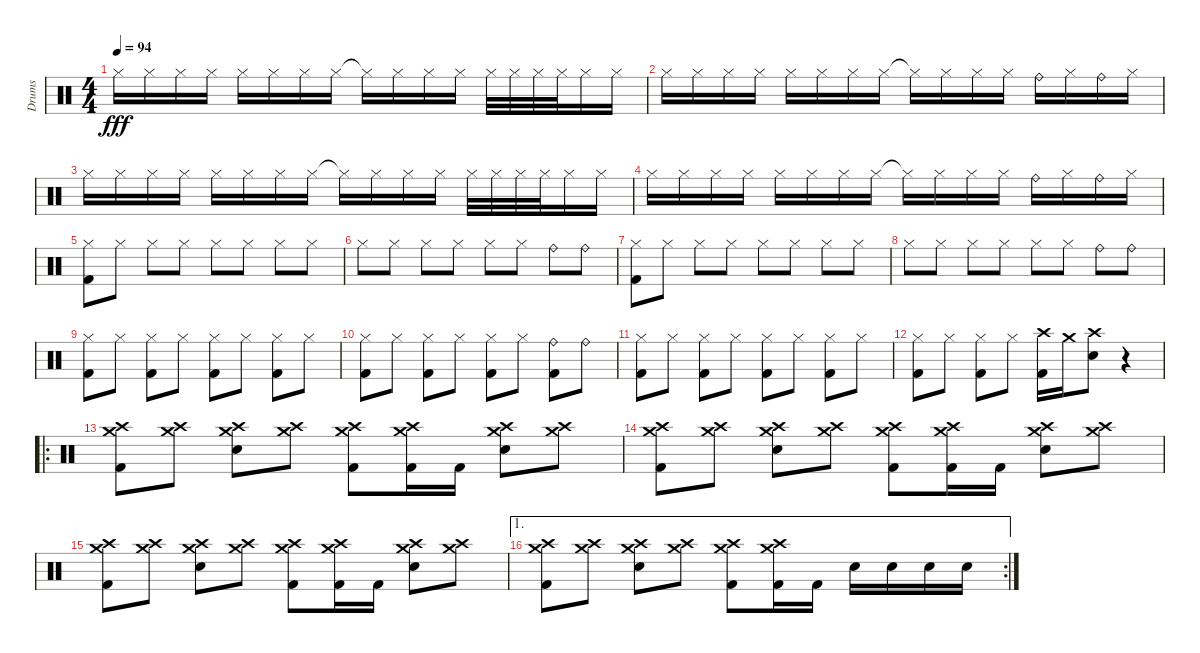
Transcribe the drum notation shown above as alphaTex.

\track ("Drums" "Drums") {instrument percussion}
\staff {score}
\articulation defaults
\ts (4 4)
\tempo 94
\clef neutral
\ks c "Hi-Hat (closed)".16{dy fff} "Hi-Hat (closed)".16 "Hi-Hat (closed)".16 "Hi-Hat (closed)".16 "Hi-Hat (closed)".16 "Hi-Hat (closed)".16 "Hi-Hat (closed)".16 "Hi-Hat (closed)".16 "Hi-Hat (closed)"{t}.16 "Hi-Hat (closed)".16 "Hi-Hat (closed)".16 "Hi-Hat (closed)".16 "Hi-Hat (closed)".32 "Hi-Hat (closed)".32 "Hi-Hat (closed)".32 "Hi-Hat (closed)".32 "Hi-Hat (closed)".16 "Hi-Hat (closed)".16
|
"Hi-Hat (closed)".16 "Hi-Hat (closed)".16 "Hi-Hat (closed)".16 "Hi-Hat (closed)".16 "Hi-Hat (closed)".16 "Hi-Hat (closed)".16 "Hi-Hat (closed)".16 "Hi-Hat (closed)".16 "Hi-Hat (closed)"{t}.16 "Hi-Hat (closed)".16 "Hi-Hat (closed)".16 "Hi-Hat (closed)".16 "Ride (bell)".16 "Hi-Hat (closed)".16 "Ride (bell)".16 "Hi-Hat (closed)".16 |
"Hi-Hat (closed)".16 "Hi-Hat (closed)".16 "Hi-Hat (closed)".16 "Hi-Hat (closed)".16 "Hi-Hat (closed)".16 "Hi-Hat (closed)".16 "Hi-Hat (closed)".16 "Hi-Hat (closed)".16 "Hi-Hat (closed)"{t}.16 "Hi-Hat (closed)".16 "Hi-Hat (closed)".16 "Hi-Hat (closed)".16 "Hi-Hat (closed)".32 "Hi-Hat (closed)".32 "Hi-Hat (closed)".32 "Hi-Hat (closed)".32 "Hi-Hat (closed)".16 "Hi-Hat (closed)".16 |
"Hi-Hat (closed)".16 "Hi-Hat (closed)".16 "Hi-Hat (closed)".16 "Hi-Hat (closed)".16 "Hi-Hat (closed)".16 "Hi-Hat (closed)".16 "Hi-Hat (closed)".16 "Hi-Hat (closed)".16 "Hi-Hat (closed)"{t}.16 "Hi-Hat (closed)".16 "Hi-Hat (closed)".16 "Hi-Hat (closed)".16 "Ride (bell)".16 "Hi-Hat (closed)".16 "Ride (bell)".16 "Hi-Hat (closed)".16 |
("Hi-Hat (closed)" "Kick (hit) 2").8 "Hi-Hat (closed)".8 "Hi-Hat (closed)".8 "Hi-Hat (closed)".8 "Hi-Hat (closed)".8 "Hi-Hat (closed)".8 "Hi-Hat (closed)".8 "Hi-Hat (closed)".8 |
"Hi-Hat (closed)".8 "Hi-Hat (closed)".8 "Hi-Hat (closed)".8 "Hi-Hat (closed)".8 "Hi-Hat (closed)".8 "Hi-Hat (closed)".8 "Ride (bell)".8 "Ride (bell)".8 |
("Hi-Hat (closed)" "Kick (hit) 2").8 "Hi-Hat (closed)".8 "Hi-Hat (closed)".8 "Hi-Hat (closed)".8 "Hi-Hat (closed)".8 "Hi-Hat (closed)".8 "Hi-Hat (closed)".8 "Hi-Hat (closed)".8 |
"Hi-Hat (closed)".8 "Hi-Hat (closed)".8 "Hi-Hat (closed)".8 "Hi-Hat (closed)".8 "Hi-Hat (closed)".8 "Hi-Hat (closed)".8 "Ride (bell)".8 "Ride (bell)".8 |
("Hi-Hat (closed)" "Kick (hit) 2").8 "Hi-Hat (closed)".8 ("Hi-Hat (closed)" "Kick (hit) 2").8 "Hi-Hat (closed)".8 ("Hi-Hat (closed)" "Kick (hit) 2").8 "Hi-Hat (closed)".8 ("Hi-Hat (closed)" "Kick (hit) 2").8 "Hi-Hat (closed)".8 |
("Hi-Hat (closed)" "Kick (hit) 2").8 "Hi-Hat (closed)".8 ("Hi-Hat (closed)" "Kick (hit) 2").8 "Hi-Hat (closed)".8 ("Hi-Hat (closed)" "Kick (hit) 2").8 "Hi-Hat (closed)".8 ("Ride (bell)" "Kick (hit) 2").8 "Ride (bell)".8 |
("Hi-Hat (closed)" "Kick (hit) 2").8 "Hi-Hat (closed)".8 ("Hi-Hat (closed)" "Kick (hit) 2").8 "Hi-Hat (closed)".8 ("Hi-Hat (closed)" "Kick (hit) 2").8 "Hi-Hat (closed)".8 ("Hi-Hat (closed)" "Kick (hit) 2").8 "Hi-Hat (closed)".8 |
("Hi-Hat (closed)" "Kick (hit) 2").8 "Hi-Hat (closed)".8 ("Hi-Hat (closed)" "Kick (hit) 2").8 "Hi-Hat (closed)".8 ("Crash high (hit)" "Kick (hit) 2").16 "Crash medium (hit)".16 ("Crash high (hit)" "Snare (hit) 2").8 r.4 |
\ro
("Crash high (hit)" "Crash medium (hit)" "Kick (hit) 2").8 ("Crash high (hit)" "Crash medium (hit)").8 ("Crash high (hit)" "Crash medium (hit)" "Snare (hit) 2").8 ("Crash high (hit)" "Crash medium (hit)").8 ("Crash high (hit)" "Crash medium (hit)" "Kick (hit) 2").8 ("Crash high (hit)" "Crash medium (hit)" "Kick (hit) 2").16 "Kick (hit) 2".16 ("Crash high (hit)" "Crash medium (hit)" "Snare (hit) 2").8 ("Crash high (hit)" "Crash medium (hit)").8 |
("Crash high (hit)" "Crash medium (hit)" "Kick (hit) 2").8 ("Crash high (hit)" "Crash medium (hit)").8 ("Crash high (hit)" "Crash medium (hit)" "Snare (hit) 2").8 ("Crash high (hit)" "Crash medium (hit)").8 ("Crash high (hit)" "Crash medium (hit)" "Kick (hit) 2").8 ("Crash high (hit)" "Crash medium (hit)" "Kick (hit) 2").16 "Kick (hit) 2".16 ("Crash high (hit)" "Crash medium (hit)" "Snare (hit) 2").8 ("Crash high (hit)" "Crash medium (hit)").8 |
("Crash high (hit)" "Crash medium (hit)" "Kick (hit) 2").8 ("Crash high (hit)" "Crash medium (hit)").8 ("Crash high (hit)" "Crash medium (hit)" "Snare (hit) 2").8 ("Crash high (hit)" "Crash medium (hit)").8 ("Crash high (hit)" "Crash medium (hit)" "Kick (hit) 2").8 ("Crash high (hit)" "Crash medium (hit)" "Kick (hit) 2").16 "Kick (hit) 2".16 ("Crash high (hit)" "Crash medium (hit)" "Snare (hit) 2").8 ("Crash high (hit)" "Crash medium (hit)").8 |
\ae 1
\rc 2
("Crash high (hit)" "Crash medium (hit)" "Kick (hit) 2").8 ("Crash high (hit)" "Crash medium (hit)").8 ("Crash high (hit)" "Crash medium (hit)" "Snare (hit) 2").8 ("Crash high (hit)" "Crash medium (hit)").8 ("Crash high (hit)" "Crash medium (hit)" "Kick (hit) 2").8 ("Crash high (hit)" "Crash medium (hit)" "Kick (hit) 2").16 "Kick (hit) 2".16 "Snare (hit) 2".16 "Snare (hit) 2".16 "Snare (hit) 2".16 "Snare (hit) 2".16
